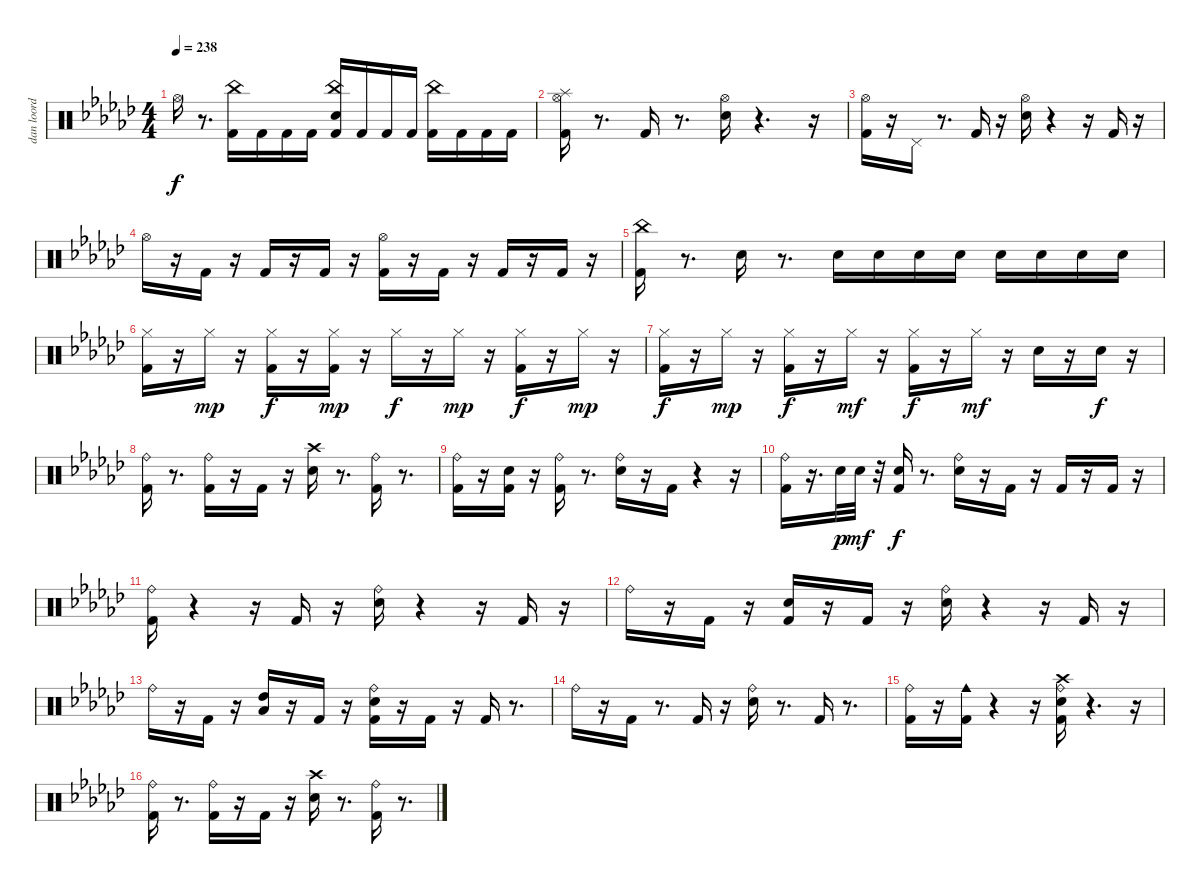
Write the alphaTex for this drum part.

\track ("dan loord foord" "dan loord ") {instrument percussion}
\staff {score}
\articulation defaults
\ts (4 4)
\tempo 238
\clef neutral
\ks gb "Hi-Hat (open)".16{dy f}
r.8{d} ("Kick (hit) 2" "China (hit)").16 "Kick (hit) 2".16 "Kick (hit) 2".16 "Kick (hit) 2".16 ("Kick (hit) 2" "Snare (hit) 2" "China (hit)").16 "Kick (hit) 2".16 "Kick (hit) 2".16 "Kick (hit) 2".16 ("Kick (hit) 2" "China (hit)").16 "Kick (hit) 2".16 "Kick (hit) 2".16 "Kick (hit) 2".16 |
("Kick (hit) 2" "Hi-Hat (open)" "Splash (hit)").16 r.8{d} "Kick (hit) 2".16 r.8{d} ("Snare (hit) 2" "Hi-Hat (open)").16 r.4{d} r.16 |
("Kick (hit) 2" "Hi-Hat (open)").16 r.16 "Pedal Hi-Hat (hit)".16 r.8{d} "Kick (hit) 2".16 r.16 ("Snare (hit) 2" "Hi-Hat (open)").16 r.4 r.16 "Kick (hit) 2".16 r.16 |
"Hi-Hat (open)".16 r.16 "Kick (hit) 2".16 r.16 "Kick (hit) 2".16 r.16 "Kick (hit) 2".16 r.16 ("Kick (hit) 2" "Hi-Hat (open)").16 r.16 "Kick (hit) 2".16 r.16 "Kick (hit) 2".16 r.16 "Kick (hit) 2".16 r.16 |
("Kick (hit) 2" "China (hit)").16 r.8{d} "Snare (hit) 2".16 r.8{d} "Snare (hit) 2".16 "Snare (hit) 2".16 "Snare (hit) 2".16 "Snare (hit) 2".16 "Snare (hit) 2".16 "Snare (hit) 2".16 "Snare (hit) 2".16 "Snare (hit) 2".16 |
("Kick (hit) 2" "Hi-Hat (closed)").16 r.16 "Hi-Hat (closed)".16{dy mp} r.16 ("Kick (hit) 2" "Hi-Hat (closed)").16{dy f} r.16 ("Kick (hit) 2" "Hi-Hat (closed)").16{dy mp} r.16 "Hi-Hat (closed)".16{dy f} r.16 "Hi-Hat (closed)".16{dy mp} r.16 ("Kick (hit) 2" "Hi-Hat (closed)").16{dy f} r.16 "Hi-Hat (closed)".16{dy mp} r.16 |
("Kick (hit) 2" "Hi-Hat (closed)").16{dy f} r.16 "Hi-Hat (closed)".16{dy mp} r.16 ("Kick (hit) 2" "Hi-Hat (closed)").16{dy f} r.16 "Hi-Hat (closed)".16{dy mf} r.16 ("Kick (hit) 2" "Hi-Hat (closed)").16{dy f} r.16 "Hi-Hat (closed)".16{dy mf} r.16 "Snare (hit) 2".16 r.16 "Snare (hit) 2".16{dy f} r.16 |
("Kick (hit) 2" "Ride (bell)").16 r.8{d} ("Kick (hit) 2" "Ride (bell)").16 r.16 "Kick (hit) 2".16 r.16 ("Snare (hit) 2" "Crash high (hit)").16 r.8{d} ("Kick (hit) 2" "Ride (bell)").16 r.8{d} |
("Kick (hit) 2" "Ride (bell)").16 r.16 ("Kick (hit) 2" "Snare (hit) 2").16 r.16 ("Kick (hit) 2" "Ride (bell)").16 r.8{d} ("Snare (hit) 2" "Ride (bell)").16 r.16 "Kick (hit) 2".16 r.4 r.16 |
("Kick (hit) 2" "Ride (bell)").16 r.16{d} "Snare (hit) 2".32{dy p} "Snare (hit) 2".32{dy mf} r.32 ("Kick (hit) 2" "Snare (hit) 2").16{dy f} r.8{d} ("Snare (hit) 2" "Ride (bell)").16 r.16 "Kick (hit) 2".16 r.16 "Kick (hit) 2".16 r.16 "Kick (hit) 2".16 r.16 |
("Kick (hit) 2" "Ride (bell)").16 r.4 r.16 "Kick (hit) 2".16 r.16 ("Snare (hit) 2" "Ride (bell)").16 r.4 r.16 "Kick (hit) 2".16 r.16 |
"Ride (bell)".16 r.16 "Kick (hit) 2".16 r.16 ("Kick (hit) 2" "Snare (hit) 2").16 r.16 "Kick (hit) 2".16 r.16 ("Snare (hit) 2" "Ride (bell)").16 r.4 r.16 "Kick (hit) 2".16 r.16 |
"Ride (bell)".16 r.16 "Kick (hit) 2".16 r.16 ("Low Floor Tom (hit)" "High Tom (hit)").16 r.16 "Kick (hit) 2".16 r.16 ("Kick (hit) 2" "Snare (hit) 2" "Ride (bell)").16 r.16 "Kick (hit) 2".16 r.16 "Kick (hit) 2".16 r.8{d} |
"Ride (bell)".16 r.16 "Kick (hit) 2".16 r.8{d} "Kick (hit) 2".16 r.16 ("Snare (hit) 2" "Ride (bell)").16 r.8{d} "Kick (hit) 2".16 r.8{d} |
("Kick (hit) 2" "Ride (bell)").16 r.16 ("Kick (hit) 2" "Cowbell medium (hit)").16 r.4 r.16 ("Kick (hit) 2" "Snare (hit) 2" "Crash high (hit)" "Ride (bell)").16 r.4{d} r.16 |
("Kick (hit) 2" "Ride (bell)").16 r.8{d} ("Kick (hit) 2" "Ride (bell)").16 r.16 "Kick (hit) 2".16 r.16 ("Snare (hit) 2" "Crash high (hit)").16 r.8{d} ("Kick (hit) 2" "Ride (bell)").16 r.8{d}
